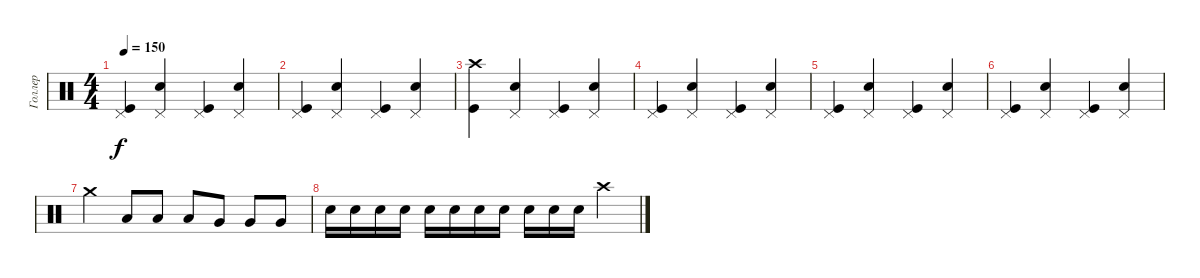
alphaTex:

\track ("Голлер" "Голлер") {instrument percussion}
\staff {score}
\articulation defaults
\ts (4 4)
\tempo 150
\clef neutral
\ks c
("Pedal Hi-Hat (hit)" "Kick (hit)").4{dy f} ("Pedal Hi-Hat (hit)" "Snare (hit) 2").4 ("Pedal Hi-Hat (hit)" "Kick (hit)").4 ("Pedal Hi-Hat (hit)" "Snare (hit) 2").4 |
("Pedal Hi-Hat (hit)" "Kick (hit)").4 ("Pedal Hi-Hat (hit)" "Snare (hit) 2").4 ("Pedal Hi-Hat (hit)" "Kick (hit)").4 ("Pedal Hi-Hat (hit)" "Snare (hit) 2").4 |
("Crash high (hit)" "Kick (hit)").4 ("Pedal Hi-Hat (hit)" "Snare (hit) 2").4 ("Pedal Hi-Hat (hit)" "Kick (hit)").4 ("Pedal Hi-Hat (hit)" "Snare (hit) 2").4 |
("Pedal Hi-Hat (hit)" "Kick (hit)").4 ("Pedal Hi-Hat (hit)" "Snare (hit) 2").4 ("Pedal Hi-Hat (hit)" "Kick (hit)").4 ("Pedal Hi-Hat (hit)" "Snare (hit) 2").4 |
("Pedal Hi-Hat (hit)" "Kick (hit)").4 ("Pedal Hi-Hat (hit)" "Snare (hit) 2").4 ("Pedal Hi-Hat (hit)" "Kick (hit)").4 ("Pedal Hi-Hat (hit)" "Snare (hit) 2").4 |
("Pedal Hi-Hat (hit)" "Kick (hit)").4 ("Pedal Hi-Hat (hit)" "Snare (hit) 2").4 ("Pedal Hi-Hat (hit)" "Kick (hit)").4 ("Pedal Hi-Hat (hit)" "Snare (hit) 2").4 |
"Crash medium (hit)".4 "Low Floor Tom (hit)".8 "Low Floor Tom (hit)".8 "Low Floor Tom (hit)".8 "Very Low Tom (hit)".8 "Very Low Tom (hit)".8 "Very Low Tom (hit)".8 |
"Snare (hit) 2".16 "Electric Snare (hit)".16 "Snare (hit) 2".16 "Electric Snare (hit)".16 "Snare (hit) 2".16 "Electric Snare (hit)".16 "Snare (hit) 2".16 "Electric Snare (hit)".16 "Snare (hit) 2".16 "Electric Snare (hit)".16 "Snare (hit) 2".16 "Crash high (hit)".4
